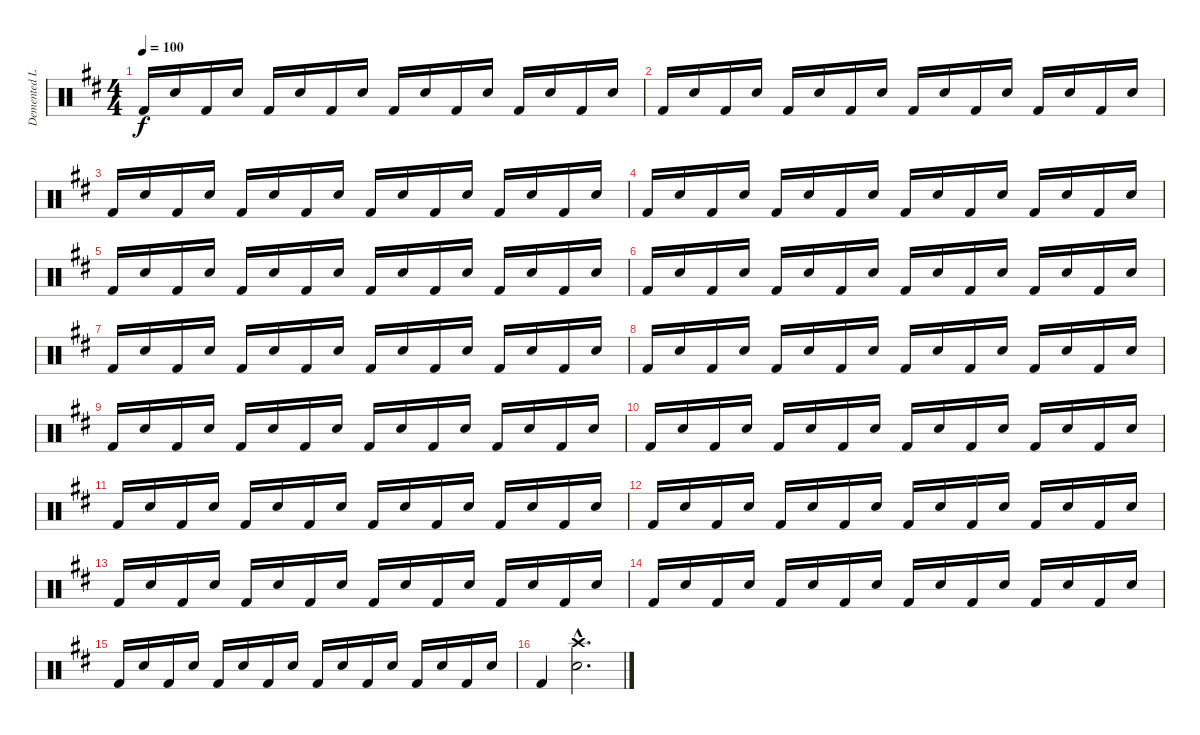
\track ("Demented Leming (Drums)" "Demented L") {instrument percussion}
\staff {score}
\articulation defaults
\ts (4 4)
\tempo 100
\clef neutral
\ks d "Kick (hit) 2".16{dy f} "Snare (hit) 2".16 "Kick (hit) 2".16 "Snare (hit) 2".16 "Kick (hit) 2".16 "Snare (hit) 2".16 "Kick (hit) 2".16 "Snare (hit) 2".16 "Kick (hit) 2".16 "Snare (hit) 2".16 "Kick (hit) 2".16 "Snare (hit) 2".16 "Kick (hit) 2".16 "Snare (hit) 2".16 "Kick (hit) 2".16 "Snare (hit) 2".16
|
"Kick (hit) 2".16 "Snare (hit) 2".16 "Kick (hit) 2".16 "Snare (hit) 2".16 "Kick (hit) 2".16 "Snare (hit) 2".16 "Kick (hit) 2".16 "Snare (hit) 2".16 "Kick (hit) 2".16 "Snare (hit) 2".16 "Kick (hit) 2".16 "Snare (hit) 2".16 "Kick (hit) 2".16 "Snare (hit) 2".16 "Kick (hit) 2".16 "Snare (hit) 2".16 |
"Kick (hit) 2".16 "Snare (hit) 2".16 "Kick (hit) 2".16 "Snare (hit) 2".16 "Kick (hit) 2".16 "Snare (hit) 2".16 "Kick (hit) 2".16 "Snare (hit) 2".16 "Kick (hit) 2".16 "Snare (hit) 2".16 "Kick (hit) 2".16 "Snare (hit) 2".16 "Kick (hit) 2".16 "Snare (hit) 2".16 "Kick (hit) 2".16 "Snare (hit) 2".16 |
"Kick (hit) 2".16 "Snare (hit) 2".16 "Kick (hit) 2".16 "Snare (hit) 2".16 "Kick (hit) 2".16 "Snare (hit) 2".16 "Kick (hit) 2".16 "Snare (hit) 2".16 "Kick (hit) 2".16 "Snare (hit) 2".16 "Kick (hit) 2".16 "Snare (hit) 2".16 "Kick (hit) 2".16 "Snare (hit) 2".16 "Kick (hit) 2".16 "Snare (hit) 2".16 |
"Kick (hit) 2".16 "Snare (hit) 2".16 "Kick (hit) 2".16 "Snare (hit) 2".16 "Kick (hit) 2".16 "Snare (hit) 2".16 "Kick (hit) 2".16 "Snare (hit) 2".16 "Kick (hit) 2".16 "Snare (hit) 2".16 "Kick (hit) 2".16 "Snare (hit) 2".16 "Kick (hit) 2".16 "Snare (hit) 2".16 "Kick (hit) 2".16 "Snare (hit) 2".16 |
"Kick (hit) 2".16 "Snare (hit) 2".16 "Kick (hit) 2".16 "Snare (hit) 2".16 "Kick (hit) 2".16 "Snare (hit) 2".16 "Kick (hit) 2".16 "Snare (hit) 2".16 "Kick (hit) 2".16 "Snare (hit) 2".16 "Kick (hit) 2".16 "Snare (hit) 2".16 "Kick (hit) 2".16 "Snare (hit) 2".16 "Kick (hit) 2".16 "Snare (hit) 2".16 |
"Kick (hit) 2".16 "Snare (hit) 2".16 "Kick (hit) 2".16 "Snare (hit) 2".16 "Kick (hit) 2".16 "Snare (hit) 2".16 "Kick (hit) 2".16 "Snare (hit) 2".16 "Kick (hit) 2".16 "Snare (hit) 2".16 "Kick (hit) 2".16 "Snare (hit) 2".16 "Kick (hit) 2".16 "Snare (hit) 2".16 "Kick (hit) 2".16 "Snare (hit) 2".16 |
"Kick (hit) 2".16 "Snare (hit) 2".16 "Kick (hit) 2".16 "Snare (hit) 2".16 "Kick (hit) 2".16 "Snare (hit) 2".16 "Kick (hit) 2".16 "Snare (hit) 2".16 "Kick (hit) 2".16 "Snare (hit) 2".16 "Kick (hit) 2".16 "Snare (hit) 2".16 "Kick (hit) 2".16 "Snare (hit) 2".16 "Kick (hit) 2".16 "Snare (hit) 2".16 |
"Kick (hit) 2".16 "Snare (hit) 2".16 "Kick (hit) 2".16 "Snare (hit) 2".16 "Kick (hit) 2".16 "Snare (hit) 2".16 "Kick (hit) 2".16 "Snare (hit) 2".16 "Kick (hit) 2".16 "Snare (hit) 2".16 "Kick (hit) 2".16 "Snare (hit) 2".16 "Kick (hit) 2".16 "Snare (hit) 2".16 "Kick (hit) 2".16 "Snare (hit) 2".16 |
"Kick (hit) 2".16 "Snare (hit) 2".16 "Kick (hit) 2".16 "Snare (hit) 2".16 "Kick (hit) 2".16 "Snare (hit) 2".16 "Kick (hit) 2".16 "Snare (hit) 2".16 "Kick (hit) 2".16 "Snare (hit) 2".16 "Kick (hit) 2".16 "Snare (hit) 2".16 "Kick (hit) 2".16 "Snare (hit) 2".16 "Kick (hit) 2".16 "Snare (hit) 2".16 |
"Kick (hit) 2".16 "Snare (hit) 2".16 "Kick (hit) 2".16 "Snare (hit) 2".16 "Kick (hit) 2".16 "Snare (hit) 2".16 "Kick (hit) 2".16 "Snare (hit) 2".16 "Kick (hit) 2".16 "Snare (hit) 2".16 "Kick (hit) 2".16 "Snare (hit) 2".16 "Kick (hit) 2".16 "Snare (hit) 2".16 "Kick (hit) 2".16 "Snare (hit) 2".16 |
"Kick (hit) 2".16 "Snare (hit) 2".16 "Kick (hit) 2".16 "Snare (hit) 2".16 "Kick (hit) 2".16 "Snare (hit) 2".16 "Kick (hit) 2".16 "Snare (hit) 2".16 "Kick (hit) 2".16 "Snare (hit) 2".16 "Kick (hit) 2".16 "Snare (hit) 2".16 "Kick (hit) 2".16 "Snare (hit) 2".16 "Kick (hit) 2".16 "Snare (hit) 2".16 |
"Kick (hit) 2".16 "Snare (hit) 2".16 "Kick (hit) 2".16 "Snare (hit) 2".16 "Kick (hit) 2".16 "Snare (hit) 2".16 "Kick (hit) 2".16 "Snare (hit) 2".16 "Kick (hit) 2".16 "Snare (hit) 2".16 "Kick (hit) 2".16 "Snare (hit) 2".16 "Kick (hit) 2".16 "Snare (hit) 2".16 "Kick (hit) 2".16 "Snare (hit) 2".16 |
"Kick (hit) 2".16 "Snare (hit) 2".16 "Kick (hit) 2".16 "Snare (hit) 2".16 "Kick (hit) 2".16 "Snare (hit) 2".16 "Kick (hit) 2".16 "Snare (hit) 2".16 "Kick (hit) 2".16 "Snare (hit) 2".16 "Kick (hit) 2".16 "Snare (hit) 2".16 "Kick (hit) 2".16 "Snare (hit) 2".16 "Kick (hit) 2".16 "Snare (hit) 2".16 |
"Kick (hit) 2".16 "Snare (hit) 2".16 "Kick (hit) 2".16 "Snare (hit) 2".16 "Kick (hit) 2".16 "Snare (hit) 2".16 "Kick (hit) 2".16 "Snare (hit) 2".16 "Kick (hit) 2".16 "Snare (hit) 2".16 "Kick (hit) 2".16 "Snare (hit) 2".16 "Kick (hit) 2".16 "Snare (hit) 2".16 "Kick (hit) 2".16 "Snare (hit) 2".16 |
"Kick (hit) 2".4 ("Crash high (hit)"{hac} "Snare (hit)"{hac}).2{d}
